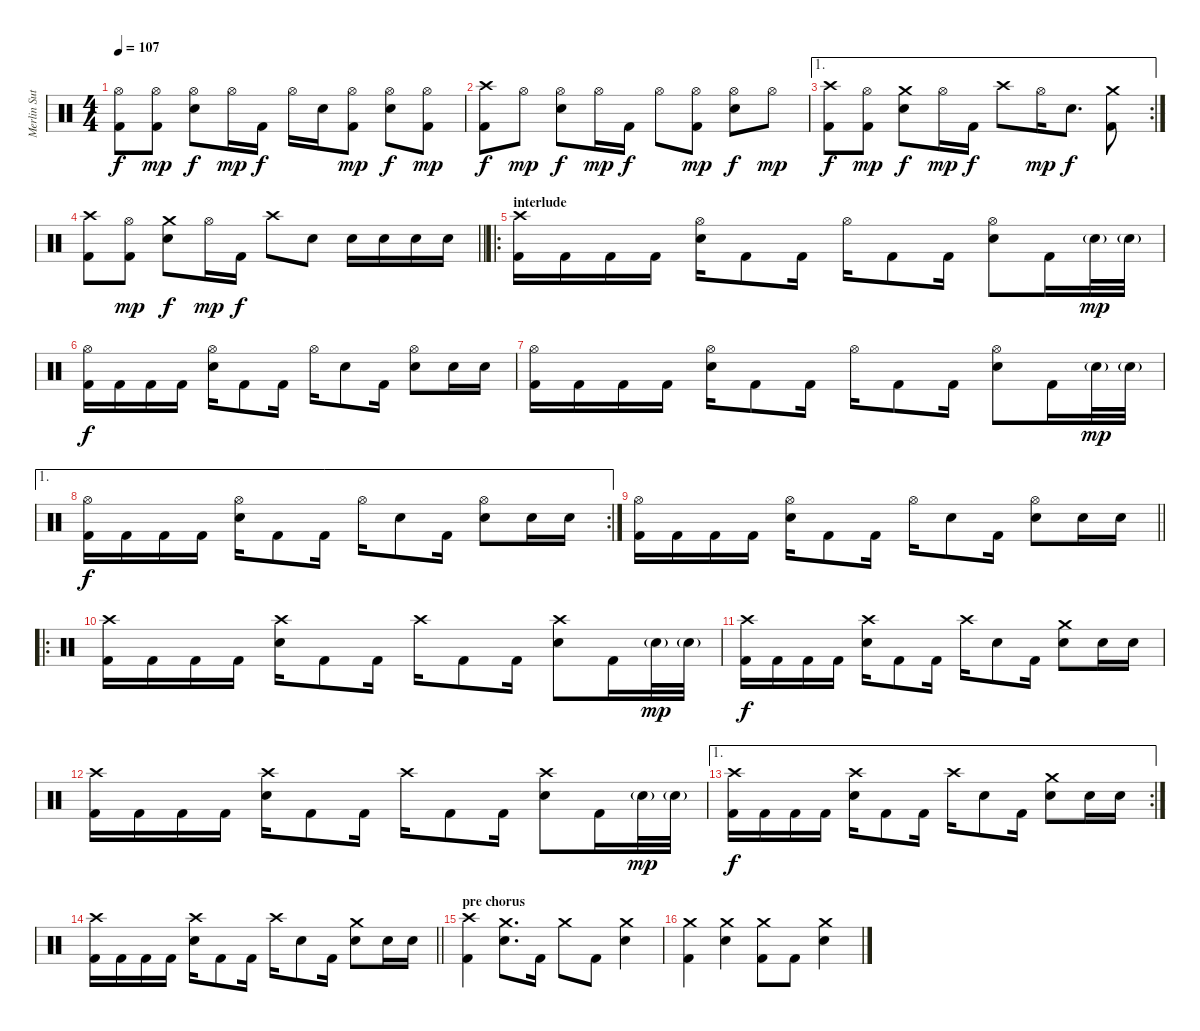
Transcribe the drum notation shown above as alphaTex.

\track ("Merlin Sutter" "Merlin Sut") {instrument percussion}
\staff {score}
\articulation defaults
\ts (4 4)
\tempo 107
\clef neutral
\ks c
("Hi-Hat (open)" "Kick (hit) 2").8{dy f} ("Hi-Hat (open)" "Kick (hit) 2").8{dy mp} ("Hi-Hat (open)" "Snare (hit) 2").8{dy f} "Hi-Hat (open)".16{dy mp} "Kick (hit) 2".16{dy f} "Hi-Hat (open)".16 "Snare (hit) 2".16 ("Hi-Hat (open)" "Kick (hit) 2").8{dy mp} ("Hi-Hat (open)" "Snare (hit) 2").8{dy f} ("Hi-Hat (open)" "Kick (hit) 2").8{dy mp} |
("Crash high (hit)" "Kick (hit) 2").8{dy f} "Hi-Hat (open)".8{dy mp} ("Hi-Hat (open)" "Snare (hit) 2").8{dy f} "Hi-Hat (open)".16{dy mp} "Kick (hit) 2".16{dy f} "Hi-Hat (open)".8 ("Hi-Hat (open)" "Kick (hit) 2").8{dy mp} ("Hi-Hat (open)" "Snare (hit) 2").8{dy f} "Hi-Hat (open)".8{dy mp} |
\ae 1
\rc 2
("Crash high (hit)" "Kick (hit) 2").8{dy f} ("Hi-Hat (open)" "Kick (hit) 2").8{dy mp} ("Crash medium (hit)" "Snare (hit) 2").8{dy f} "Hi-Hat (open)".16{dy mp} "Kick (hit) 2".16{dy f} "Crash high (hit)".8 "Hi-Hat (open)".16{dy mp} "Snare (hit) 2".8{d dy f} ("Crash medium (hit)" "Kick (hit) 2").8 |
\barLineRight lightlight
("Crash high (hit)" "Kick (hit) 2").8 ("Hi-Hat (open)" "Kick (hit) 2").8{dy mp} ("Crash medium (hit)" "Snare (hit) 2").8{dy f} "Hi-Hat (open)".16{dy mp} "Kick (hit) 2".16{dy f} "Crash high (hit)".8 "Snare (hit) 2".8 "Snare (hit) 2".16 "Snare (hit) 2".16 "Snare (hit) 2".16 "Snare (hit) 2".16 |
\ro
\section ("" "interlude")
("Crash high (hit)" "Kick (hit) 2").16 "Kick (hit) 2".16 "Kick (hit) 2".16 "Kick (hit) 2".16 ("Hi-Hat (open)" "Snare (hit) 2").16 "Kick (hit) 2".8 "Kick (hit) 2".16 "Hi-Hat (open)".16 "Kick (hit) 2".8 "Kick (hit) 2".16 ("Hi-Hat (open)" "Snare (hit) 2").8 "Kick (hit) 2".16 "Snare (hit) 2"{g}.32{dy mp} "Snare (hit) 2"{g}.32 |
("Hi-Hat (open)" "Kick (hit) 2").16{dy f} "Kick (hit) 2".16 "Kick (hit) 2".16 "Kick (hit) 2".16 ("Hi-Hat (open)" "Snare (hit) 2").16 "Kick (hit) 2".8 "Kick (hit) 2".16 "Hi-Hat (open)".16 "Snare (hit) 2".8 "Kick (hit) 2".16 ("Hi-Hat (open)" "Snare (hit) 2").8 "Snare (hit) 2".16 "Snare (hit) 2".16 |
("Hi-Hat (open)" "Kick (hit) 2").16 "Kick (hit) 2".16 "Kick (hit) 2".16 "Kick (hit) 2".16 ("Hi-Hat (open)" "Snare (hit) 2").16 "Kick (hit) 2".8 "Kick (hit) 2".16 "Hi-Hat (open)".16 "Kick (hit) 2".8 "Kick (hit) 2".16 ("Hi-Hat (open)" "Snare (hit) 2").8 "Kick (hit) 2".16 "Snare (hit) 2"{g}.32{dy mp} "Snare (hit) 2"{g}.32 |
\ae 1
\rc 2
("Hi-Hat (open)" "Kick (hit) 2").16{dy f} "Kick (hit) 2".16 "Kick (hit) 2".16 "Kick (hit) 2".16 ("Hi-Hat (open)" "Snare (hit) 2").16 "Kick (hit) 2".8 "Kick (hit) 2".16 "Hi-Hat (open)".16 "Snare (hit) 2".8 "Kick (hit) 2".16 ("Hi-Hat (open)" "Snare (hit) 2").8 "Snare (hit) 2".16 "Snare (hit) 2".16 |
\barLineRight lightlight
("Hi-Hat (open)" "Kick (hit) 2").16 "Kick (hit) 2".16 "Kick (hit) 2".16 "Kick (hit) 2".16 ("Hi-Hat (open)" "Snare (hit) 2").16 "Kick (hit) 2".8 "Kick (hit) 2".16 "Hi-Hat (open)".16 "Snare (hit) 2".8 "Kick (hit) 2".16 ("Hi-Hat (open)" "Snare (hit) 2").8 "Snare (hit) 2".16 "Snare (hit) 2".16 |
\ro
\section ("" "")
("Crash high (hit)" "Kick (hit) 2").16 "Kick (hit) 2".16 "Kick (hit) 2".16 "Kick (hit) 2".16 ("Crash high (hit)" "Snare (hit) 2").16 "Kick (hit) 2".8 "Kick (hit) 2".16 "Crash high (hit)".16 "Kick (hit) 2".8 "Kick (hit) 2".16 ("Crash high (hit)" "Snare (hit) 2").8 "Kick (hit) 2".16 "Snare (hit) 2"{g}.32{dy mp} "Snare (hit) 2"{g}.32 |
("Crash high (hit)" "Kick (hit) 2").16{dy f} "Kick (hit) 2".16 "Kick (hit) 2".16 "Kick (hit) 2".16 ("Crash high (hit)" "Snare (hit) 2").16 "Kick (hit) 2".8 "Kick (hit) 2".16 "Crash high (hit)".16 "Snare (hit) 2".8 "Kick (hit) 2".16 ("Crash medium (hit)" "Snare (hit) 2").8 "Snare (hit) 2".16 "Snare (hit) 2".16 |
("Crash high (hit)" "Kick (hit) 2").16 "Kick (hit) 2".16 "Kick (hit) 2".16 "Kick (hit) 2".16 ("Crash high (hit)" "Snare (hit) 2").16 "Kick (hit) 2".8 "Kick (hit) 2".16 "Crash high (hit)".16 "Kick (hit) 2".8 "Kick (hit) 2".16 ("Crash high (hit)" "Snare (hit) 2").8 "Kick (hit) 2".16 "Snare (hit) 2"{g}.32{dy mp} "Snare (hit) 2"{g}.32 |
\ae 1
\rc 2
("Crash high (hit)" "Kick (hit) 2").16{dy f} "Kick (hit) 2".16 "Kick (hit) 2".16 "Kick (hit) 2".16 ("Crash high (hit)" "Snare (hit) 2").16 "Kick (hit) 2".8 "Kick (hit) 2".16 "Crash high (hit)".16 "Snare (hit) 2".8 "Kick (hit) 2".16 ("Crash medium (hit)" "Snare (hit) 2").8 "Snare (hit) 2".16 "Snare (hit) 2".16 |
\barLineRight lightlight
("Crash high (hit)" "Kick (hit) 2").16 "Kick (hit) 2".16 "Kick (hit) 2".16 "Kick (hit) 2".16 ("Crash high (hit)" "Snare (hit) 2").16 "Kick (hit) 2".8 "Kick (hit) 2".16 "Crash high (hit)".16 "Snare (hit) 2".8 "Kick (hit) 2".16 ("Crash medium (hit)" "Snare (hit) 2").8 "Snare (hit) 2".16 "Snare (hit) 2".16 |
\section ("" "pre chorus")
("Crash high (hit)" "Kick (hit) 2").4 ("Crash medium (hit)" "Snare (hit) 2").8{d} "Kick (hit) 2".16 "Crash medium (hit)".8 "Kick (hit) 2".8 ("Crash medium (hit)" "Snare (hit) 2").4 |
("Crash medium (hit)" "Kick (hit) 2").4 ("Crash medium (hit)" "Snare (hit) 2").4 ("Crash medium (hit)" "Kick (hit) 2").8 "Kick (hit) 2".8 ("Crash medium (hit)" "Snare (hit) 2").4
